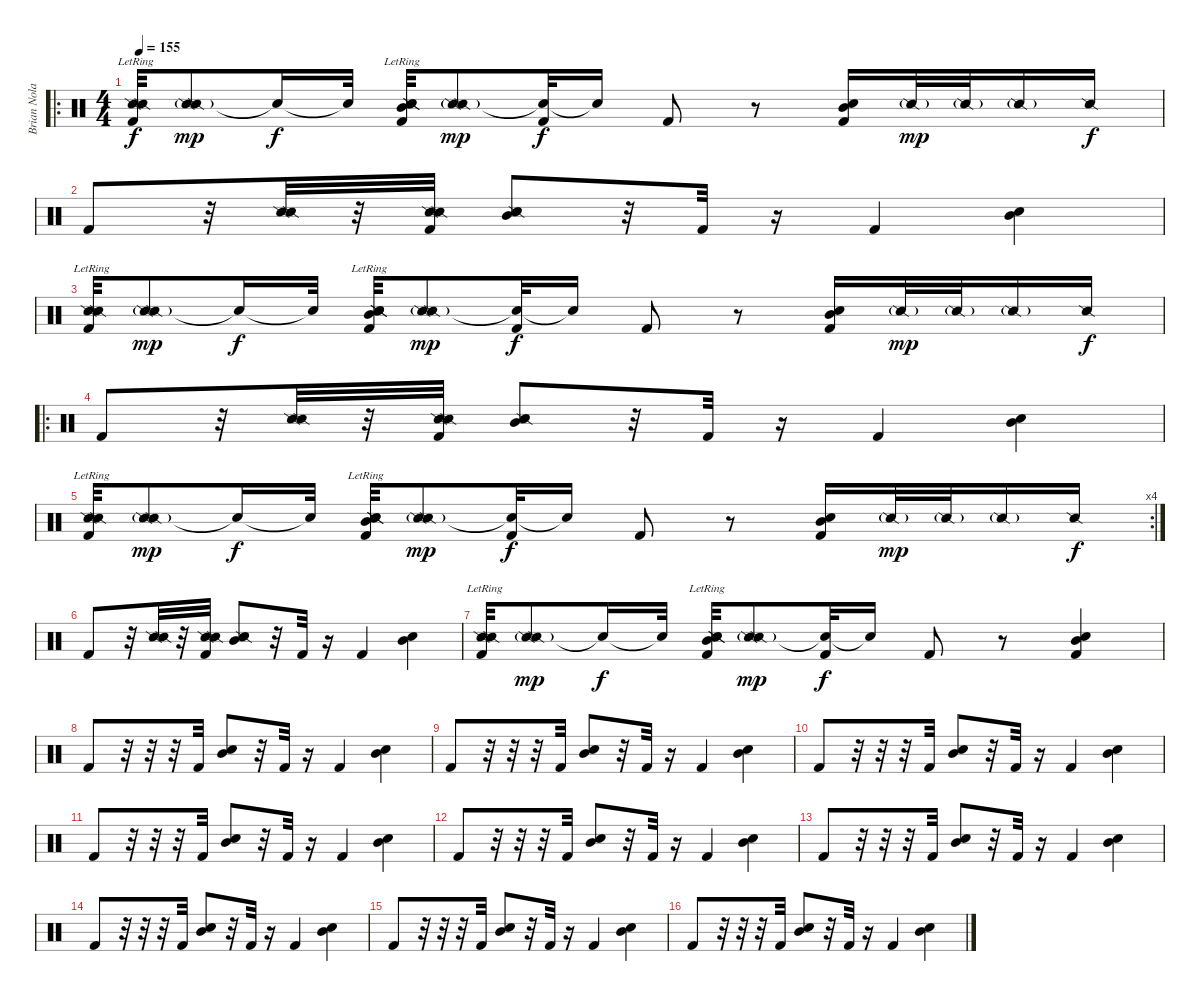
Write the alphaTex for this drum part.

\track ("Brian Nolan" "Brian Nola") {instrument percussion}
\staff {score}
\articulation defaults
\ro
\ts (4 4)
\tempo 155
\clef neutral
\ks c
("Snare (side stick) 2"{lr} "Snare (side stick) 2" "Kick (hit) 2").32{dy f} ("Snare (side stick) 2"{g} "Snare (side stick) 2").8{dy mp} "Snare (hit)"{t}.16{dy f} "Snare (hit)"{t}.32 ("Snare (side stick) 2" "Snare (side stick) 2" "Snare (hit) 2"{lr} "Mid Tom (hit)" "Kick (hit) 2").32 ("Snare (side stick) 2"{g} "Snare (side stick) 2").8{dy mp} ("Snare (hit)"{t} "Kick (hit) 2").32{dy f} "Snare (hit)"{t}.16 "Kick (hit) 2".8 r.8 ("Snare (hit) 2" "Mid Tom (hit)" "Kick (hit) 2").16 "Snare (side stick) 2"{g}.32{dy mp} "Snare (side stick) 2"{g}.32 "Snare (side stick) 2"{g}.16 "Snare (side stick) 2".16{dy f} |
"Kick (hit) 2".8 r.32 ("Snare (side stick) 2" "Snare (side stick) 2").32 r.32 ("Snare (side stick) 2" "Snare (side stick) 2" "Kick (hit) 2").32 ("Snare (hit) 2" "Mid Tom (hit)" "Snare (side stick) 2").8 r.32 "Kick (hit) 2".32 r.16 "Kick (hit) 2".4 ("Snare (hit) 2" "Mid Tom (hit)").4 |
("Snare (side stick) 2"{lr} "Snare (side stick) 2" "Kick (hit) 2").32 ("Snare (side stick) 2"{g} "Snare (side stick) 2").8{dy mp} "Snare (hit)"{t}.16{dy f} "Snare (hit)"{t}.32 ("Snare (side stick) 2" "Snare (side stick) 2" "Snare (hit) 2"{lr} "Mid Tom (hit)" "Kick (hit) 2").32 ("Snare (side stick) 2"{g} "Snare (side stick) 2").8{dy mp} ("Snare (hit)"{t} "Kick (hit) 2").32{dy f} "Snare (hit)"{t}.16 "Kick (hit) 2".8 r.8 ("Snare (hit) 2" "Mid Tom (hit)" "Kick (hit) 2").16 "Snare (side stick) 2"{g}.32{dy mp} "Snare (side stick) 2"{g}.32 "Snare (side stick) 2"{g}.16 "Snare (side stick) 2".16{dy f} |
\ro "Kick (hit) 2".8
r.32 ("Snare (side stick) 2" "Snare (side stick) 2").32 r.32 ("Snare (side stick) 2" "Snare (side stick) 2" "Kick (hit) 2").32 ("Snare (hit) 2" "Mid Tom (hit)" "Snare (side stick) 2").8 r.32 "Kick (hit) 2".32 r.16 "Kick (hit) 2".4 ("Snare (hit) 2" "Mid Tom (hit)").4 |
\rc 4
("Snare (side stick) 2"{lr} "Snare (side stick) 2" "Kick (hit) 2").32 ("Snare (side stick) 2"{g} "Snare (side stick) 2").8{dy mp} "Snare (hit)"{t}.16{dy f} "Snare (hit)"{t}.32 ("Snare (side stick) 2" "Snare (side stick) 2" "Snare (hit) 2"{lr} "Mid Tom (hit)" "Kick (hit) 2").32 ("Snare (side stick) 2"{g} "Snare (side stick) 2").8{dy mp} ("Snare (hit)"{t} "Kick (hit) 2").32{dy f} "Snare (hit)"{t}.16 "Kick (hit) 2".8 r.8 ("Snare (hit) 2" "Mid Tom (hit)" "Kick (hit) 2").16 "Snare (side stick) 2"{g}.32{dy mp} "Snare (side stick) 2"{g}.32 "Snare (side stick) 2"{g}.16 "Snare (side stick) 2".16{dy f} |
"Kick (hit) 2".8 r.32 ("Snare (side stick) 2" "Snare (side stick) 2").32 r.32 ("Snare (side stick) 2" "Snare (side stick) 2" "Kick (hit) 2").32 ("Snare (hit) 2" "Mid Tom (hit)" "Snare (side stick) 2").8 r.32 "Kick (hit) 2".32 r.16 "Kick (hit) 2".4 ("Snare (hit) 2" "Mid Tom (hit)").4 |
("Snare (side stick) 2"{lr} "Snare (side stick) 2" "Kick (hit) 2").32 ("Snare (side stick) 2"{g} "Snare (side stick) 2").8{dy mp} "Snare (hit)"{t}.16{dy f} "Snare (hit)"{t}.32 ("Snare (side stick) 2" "Snare (side stick) 2" "Snare (hit) 2"{lr} "Mid Tom (hit)" "Kick (hit) 2").32 ("Snare (side stick) 2"{g} "Snare (side stick) 2").8{dy mp} ("Snare (hit)"{t} "Kick (hit) 2").32{dy f} "Snare (hit)"{t}.16 "Kick (hit) 2".8 r.8 ("Snare (hit) 2" "Mid Tom (hit)" "Kick (hit) 2").4 |
"Kick (hit) 2".8 r.32 r.32 r.32 "Kick (hit) 2".32 ("Snare (hit) 2" "Mid Tom (hit)").8 r.32 "Kick (hit) 2".32 r.16 "Kick (hit) 2".4 ("Snare (hit) 2" "Mid Tom (hit)").4 |
"Kick (hit) 2".8 r.32 r.32 r.32 "Kick (hit) 2".32 ("Snare (hit) 2" "Mid Tom (hit)").8 r.32 "Kick (hit) 2".32 r.16 "Kick (hit) 2".4 ("Snare (hit) 2" "Mid Tom (hit)").4 |
"Kick (hit) 2".8 r.32 r.32 r.32 "Kick (hit) 2".32 ("Snare (hit) 2" "Mid Tom (hit)").8 r.32 "Kick (hit) 2".32 r.16 "Kick (hit) 2".4 ("Snare (hit) 2" "Mid Tom (hit)").4 |
"Kick (hit) 2".8 r.32 r.32 r.32 "Kick (hit) 2".32 ("Snare (hit) 2" "Mid Tom (hit)").8 r.32 "Kick (hit) 2".32 r.16 "Kick (hit) 2".4 ("Snare (hit) 2" "Mid Tom (hit)").4 |
"Kick (hit) 2".8 r.32 r.32 r.32 "Kick (hit) 2".32 ("Snare (hit) 2" "Mid Tom (hit)").8 r.32 "Kick (hit) 2".32 r.16 "Kick (hit) 2".4 ("Snare (hit) 2" "Mid Tom (hit)").4 |
"Kick (hit) 2".8 r.32 r.32 r.32 "Kick (hit) 2".32 ("Snare (hit) 2" "Mid Tom (hit)").8 r.32 "Kick (hit) 2".32 r.16 "Kick (hit) 2".4 ("Snare (hit) 2" "Mid Tom (hit)").4 |
"Kick (hit) 2".8 r.32 r.32 r.32 "Kick (hit) 2".32 ("Snare (hit) 2" "Mid Tom (hit)").8 r.32 "Kick (hit) 2".32 r.16 "Kick (hit) 2".4 ("Snare (hit) 2" "Mid Tom (hit)").4 |
"Kick (hit) 2".8 r.32 r.32 r.32 "Kick (hit) 2".32 ("Snare (hit) 2" "Mid Tom (hit)").8 r.32 "Kick (hit) 2".32 r.16 "Kick (hit) 2".4 ("Snare (hit) 2" "Mid Tom (hit)").4 |
"Kick (hit) 2".8 r.32 r.32 r.32 "Kick (hit) 2".32 ("Snare (hit) 2" "Mid Tom (hit)").8 r.32 "Kick (hit) 2".32 r.16 "Kick (hit) 2".4 ("Snare (hit) 2" "Mid Tom (hit)").4
